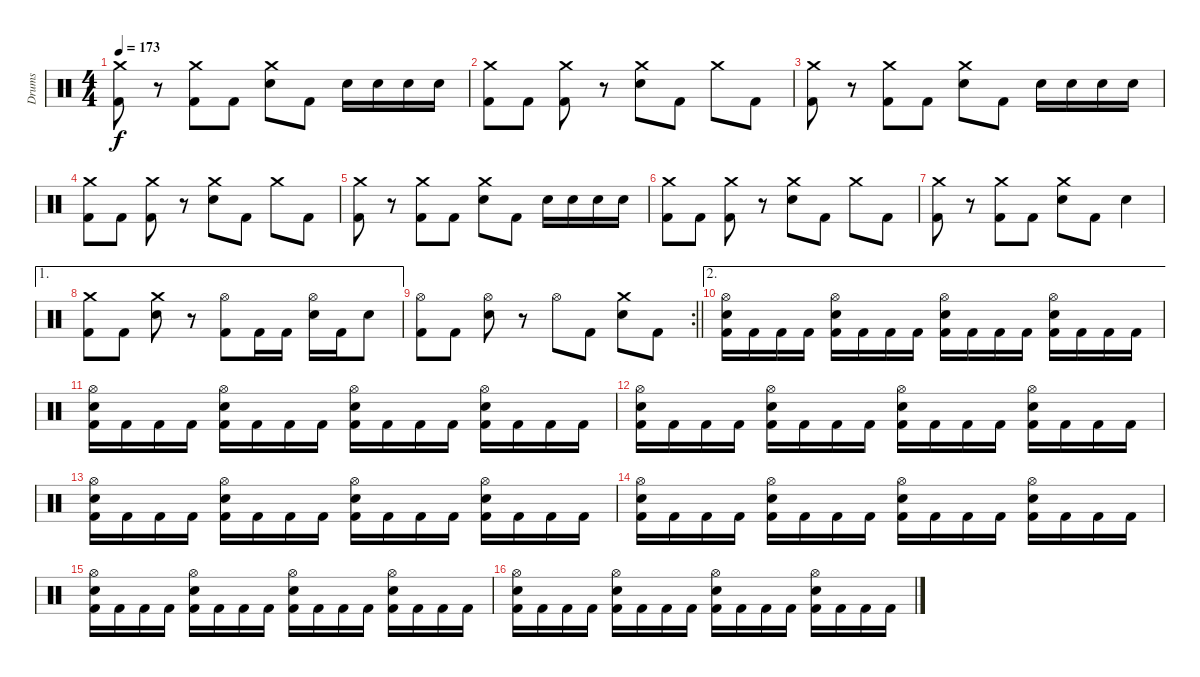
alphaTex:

\track ("Drums" "Drums") {instrument percussion}
\staff {score}
\articulation defaults
\ts (4 4)
\tempo 173
\clef neutral
\ks c
("Crash medium (hit)" "Kick (hit) 2").8{dy f} r.8 ("Crash medium (hit)" "Kick (hit) 2").8 "Kick (hit) 2".8 ("Crash medium (hit)" "Snare (hit) 2").8 "Kick (hit) 2".8 "Snare (hit) 2".16 "Snare (hit) 2".16 "Snare (hit) 2".16 "Snare (hit) 2".16 |
("Crash medium (hit)" "Kick (hit) 2").8 "Kick (hit) 2".8 ("Crash medium (hit)" "Kick (hit) 2").8 r.8 ("Crash medium (hit)" "Snare (hit) 2").8 "Kick (hit) 2".8 "Crash medium (hit)".8 "Kick (hit) 2".8 |
("Crash medium (hit)" "Kick (hit) 2").8 r.8 ("Crash medium (hit)" "Kick (hit) 2").8 "Kick (hit) 2".8 ("Crash medium (hit)" "Snare (hit) 2").8 "Kick (hit) 2".8 "Snare (hit) 2".16 "Snare (hit) 2".16 "Snare (hit) 2".16 "Snare (hit) 2".16 |
("Crash medium (hit)" "Kick (hit) 2").8 "Kick (hit) 2".8 ("Crash medium (hit)" "Kick (hit) 2").8 r.8 ("Crash medium (hit)" "Snare (hit) 2").8 "Kick (hit) 2".8 "Crash medium (hit)".8 "Kick (hit) 2".8 |
("Crash medium (hit)" "Kick (hit) 2").8 r.8 ("Crash medium (hit)" "Kick (hit) 2").8 "Kick (hit) 2".8 ("Crash medium (hit)" "Snare (hit) 2").8 "Kick (hit) 2".8 "Snare (hit) 2".16 "Snare (hit) 2".16 "Snare (hit) 2".16 "Snare (hit) 2".16 |
("Crash medium (hit)" "Kick (hit) 2").8 "Kick (hit) 2".8 ("Crash medium (hit)" "Kick (hit) 2").8 r.8 ("Crash medium (hit)" "Snare (hit) 2").8 "Kick (hit) 2".8 "Crash medium (hit)".8 "Kick (hit) 2".8 |
("Crash medium (hit)" "Kick (hit) 2").8 r.8 ("Crash medium (hit)" "Kick (hit) 2").8 "Kick (hit) 2".8 ("Crash medium (hit)" "Snare (hit) 2").8 "Kick (hit) 2".8 "Snare (hit) 2".4 |
\ae 1
("Crash medium (hit)" "Kick (hit) 2").8 "Kick (hit) 2".8 ("Crash medium (hit)" "Snare (hit) 2").8 r.8 ("Hi-Hat (open)" "Kick (hit) 2").8 "Kick (hit) 2".16 "Kick (hit) 2".16 ("Hi-Hat (open)" "Snare (hit) 2").16 "Kick (hit) 2".16 "Snare (hit) 2".8 |
\rc 2
\barLineRight lightlight
("Hi-Hat (open)" "Kick (hit) 2").8 "Kick (hit) 2".8 ("Hi-Hat (open)" "Snare (hit) 2").8 r.8 "Hi-Hat (open)".8 "Kick (hit) 2".8 ("Crash medium (hit)" "Snare (hit) 2").8 "Kick (hit) 2".8 |
\ae 2
("Hi-Hat (open)" "Snare (hit) 2" "Kick (hit) 2").16 "Kick (hit) 2".16 "Kick (hit) 2".16 "Kick (hit) 2".16 ("Hi-Hat (open)" "Snare (hit) 2" "Kick (hit) 2").16 "Kick (hit) 2".16 "Kick (hit) 2".16 "Kick (hit) 2".16 ("Hi-Hat (open)" "Snare (hit) 2" "Kick (hit) 2").16 "Kick (hit) 2".16 "Kick (hit) 2".16 "Kick (hit) 2".16 ("Hi-Hat (open)" "Snare (hit) 2" "Kick (hit) 2").16 "Kick (hit) 2".16 "Kick (hit) 2".16 "Kick (hit) 2".16 |
("Hi-Hat (open)" "Snare (hit) 2" "Kick (hit) 2").16 "Kick (hit) 2".16 "Kick (hit) 2".16 "Kick (hit) 2".16 ("Hi-Hat (open)" "Snare (hit) 2" "Kick (hit) 2").16 "Kick (hit) 2".16 "Kick (hit) 2".16 "Kick (hit) 2".16 ("Hi-Hat (open)" "Snare (hit) 2" "Kick (hit) 2").16 "Kick (hit) 2".16 "Kick (hit) 2".16 "Kick (hit) 2".16 ("Hi-Hat (open)" "Snare (hit) 2" "Kick (hit) 2").16 "Kick (hit) 2".16 "Kick (hit) 2".16 "Kick (hit) 2".16 |
("Hi-Hat (open)" "Snare (hit) 2" "Kick (hit) 2").16 "Kick (hit) 2".16 "Kick (hit) 2".16 "Kick (hit) 2".16 ("Hi-Hat (open)" "Snare (hit) 2" "Kick (hit) 2").16 "Kick (hit) 2".16 "Kick (hit) 2".16 "Kick (hit) 2".16 ("Hi-Hat (open)" "Snare (hit) 2" "Kick (hit) 2").16 "Kick (hit) 2".16 "Kick (hit) 2".16 "Kick (hit) 2".16 ("Hi-Hat (open)" "Snare (hit) 2" "Kick (hit) 2").16 "Kick (hit) 2".16 "Kick (hit) 2".16 "Kick (hit) 2".16 |
("Hi-Hat (open)" "Snare (hit) 2" "Kick (hit) 2").16 "Kick (hit) 2".16 "Kick (hit) 2".16 "Kick (hit) 2".16 ("Hi-Hat (open)" "Snare (hit) 2" "Kick (hit) 2").16 "Kick (hit) 2".16 "Kick (hit) 2".16 "Kick (hit) 2".16 ("Hi-Hat (open)" "Snare (hit) 2" "Kick (hit) 2").16 "Kick (hit) 2".16 "Kick (hit) 2".16 "Kick (hit) 2".16 ("Hi-Hat (open)" "Snare (hit) 2" "Kick (hit) 2").16 "Kick (hit) 2".16 "Kick (hit) 2".16 "Kick (hit) 2".16 |
("Hi-Hat (open)" "Snare (hit) 2" "Kick (hit) 2").16 "Kick (hit) 2".16 "Kick (hit) 2".16 "Kick (hit) 2".16 ("Hi-Hat (open)" "Snare (hit) 2" "Kick (hit) 2").16 "Kick (hit) 2".16 "Kick (hit) 2".16 "Kick (hit) 2".16 ("Hi-Hat (open)" "Snare (hit) 2" "Kick (hit) 2").16 "Kick (hit) 2".16 "Kick (hit) 2".16 "Kick (hit) 2".16 ("Hi-Hat (open)" "Snare (hit) 2" "Kick (hit) 2").16 "Kick (hit) 2".16 "Kick (hit) 2".16 "Kick (hit) 2".16 |
("Hi-Hat (open)" "Snare (hit) 2" "Kick (hit) 2").16 "Kick (hit) 2".16 "Kick (hit) 2".16 "Kick (hit) 2".16 ("Hi-Hat (open)" "Snare (hit) 2" "Kick (hit) 2").16 "Kick (hit) 2".16 "Kick (hit) 2".16 "Kick (hit) 2".16 ("Hi-Hat (open)" "Snare (hit) 2" "Kick (hit) 2").16 "Kick (hit) 2".16 "Kick (hit) 2".16 "Kick (hit) 2".16 ("Hi-Hat (open)" "Snare (hit) 2" "Kick (hit) 2").16 "Kick (hit) 2".16 "Kick (hit) 2".16 "Kick (hit) 2".16 |
("Hi-Hat (open)" "Snare (hit) 2" "Kick (hit) 2").16 "Kick (hit) 2".16 "Kick (hit) 2".16 "Kick (hit) 2".16 ("Hi-Hat (open)" "Snare (hit) 2" "Kick (hit) 2").16 "Kick (hit) 2".16 "Kick (hit) 2".16 "Kick (hit) 2".16 ("Hi-Hat (open)" "Snare (hit) 2" "Kick (hit) 2").16 "Kick (hit) 2".16 "Kick (hit) 2".16 "Kick (hit) 2".16 ("Hi-Hat (open)" "Snare (hit) 2" "Kick (hit) 2").16 "Kick (hit) 2".16 "Kick (hit) 2".16 "Kick (hit) 2".16
